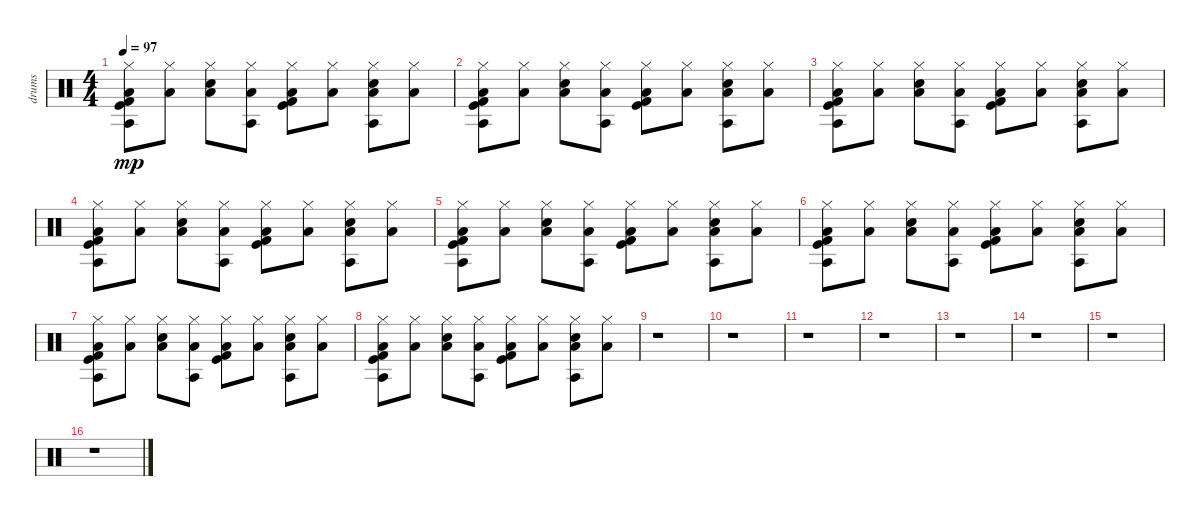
\track ("drums" "drums") {instrument percussion}
\staff {score}
\articulation defaults
\ts (4 4)
\tempo 97
\clef neutral
\ks c
("Hi-Hat (closed)" "Agogo tow (hit)" "Kick (hit)" "Kick (hit) 2" "Low Floor Tom (hit)").8{dy mp} ("Hi-Hat (closed)" "Low Floor Tom (hit)").8 ("Electric Snare (hit)" "Hi-Hat (closed)" "Low Floor Tom (hit)").8 ("Hi-Hat (closed)" "Agogo tow (hit)" "Low Floor Tom (hit)").8 ("Kick (hit)" "Hi-Hat (closed)" "Kick (hit) 2" "Low Floor Tom (hit)").8 ("Hi-Hat (closed)" "Low Floor Tom (hit)").8 ("Agogo tow (hit)" "Hi-Hat (closed)" "Electric Snare (hit)" "Low Floor Tom (hit)").8 ("Hi-Hat (closed)" "Low Floor Tom (hit)").8 |
("Kick (hit)" "Kick (hit) 2" "Agogo tow (hit)" "Hi-Hat (closed)" "Low Floor Tom (hit)").8 ("Hi-Hat (closed)" "Low Floor Tom (hit)").8 ("Hi-Hat (closed)" "Electric Snare (hit)" "Low Floor Tom (hit)").8 ("Agogo tow (hit)" "Hi-Hat (closed)" "Low Floor Tom (hit)").8 ("Kick (hit) 2" "Kick (hit)" "Hi-Hat (closed)" "Low Floor Tom (hit)").8 ("Hi-Hat (closed)" "Low Floor Tom (hit)").8 ("Agogo tow (hit)" "Hi-Hat (closed)" "Electric Snare (hit)" "Low Floor Tom (hit)").8 ("Hi-Hat (closed)" "Low Floor Tom (hit)").8 |
("Kick (hit)" "Kick (hit) 2" "Hi-Hat (closed)" "Agogo tow (hit)" "Low Floor Tom (hit)").8 ("Hi-Hat (closed)" "Low Floor Tom (hit)").8 ("Hi-Hat (closed)" "Electric Snare (hit)" "Low Floor Tom (hit)").8 ("Hi-Hat (closed)" "Agogo tow (hit)" "Low Floor Tom (hit)").8 ("Kick (hit)" "Kick (hit) 2" "Hi-Hat (closed)" "Low Floor Tom (hit)").8 ("Hi-Hat (closed)" "Low Floor Tom (hit)").8 ("Hi-Hat (closed)" "Agogo tow (hit)" "Electric Snare (hit)" "Low Floor Tom (hit)").8 ("Hi-Hat (closed)" "Low Floor Tom (hit)").8 |
("Kick (hit) 2" "Kick (hit)" "Agogo tow (hit)" "Hi-Hat (closed)" "Low Floor Tom (hit)").8 ("Hi-Hat (closed)" "Low Floor Tom (hit)").8 ("Hi-Hat (closed)" "Electric Snare (hit)" "Low Floor Tom (hit)").8 ("Agogo tow (hit)" "Hi-Hat (closed)" "Low Floor Tom (hit)").8 ("Kick (hit)" "Kick (hit) 2" "Hi-Hat (closed)" "Low Floor Tom (hit)").8 ("Hi-Hat (closed)" "Low Floor Tom (hit)").8 ("Agogo tow (hit)" "Hi-Hat (closed)" "Electric Snare (hit)" "Low Floor Tom (hit)").8 ("Hi-Hat (closed)" "Low Floor Tom (hit)").8 |
("Kick (hit)" "Kick (hit) 2" "Agogo tow (hit)" "Hi-Hat (closed)" "Low Floor Tom (hit)").8 ("Hi-Hat (closed)" "Low Floor Tom (hit)").8 ("Hi-Hat (closed)" "Electric Snare (hit)" "Low Floor Tom (hit)").8 ("Agogo tow (hit)" "Hi-Hat (closed)" "Low Floor Tom (hit)").8 ("Kick (hit) 2" "Kick (hit)" "Hi-Hat (closed)" "Low Floor Tom (hit)").8 ("Hi-Hat (closed)" "Low Floor Tom (hit)").8 ("Agogo tow (hit)" "Hi-Hat (closed)" "Electric Snare (hit)" "Low Floor Tom (hit)").8 ("Hi-Hat (closed)" "Low Floor Tom (hit)").8 |
("Kick (hit)" "Kick (hit) 2" "Agogo tow (hit)" "Hi-Hat (closed)" "Low Floor Tom (hit)").8 ("Hi-Hat (closed)" "Low Floor Tom (hit)").8 ("Hi-Hat (closed)" "Electric Snare (hit)" "Low Floor Tom (hit)").8 ("Agogo tow (hit)" "Hi-Hat (closed)" "Low Floor Tom (hit)").8 ("Kick (hit)" "Kick (hit) 2" "Hi-Hat (closed)" "Low Floor Tom (hit)").8 ("Hi-Hat (closed)" "Low Floor Tom (hit)").8 ("Agogo tow (hit)" "Hi-Hat (closed)" "Electric Snare (hit)" "Low Floor Tom (hit)").8 ("Hi-Hat (closed)" "Low Floor Tom (hit)").8 |
("Kick (hit) 2" "Kick (hit)" "Hi-Hat (closed)" "Agogo tow (hit)" "Low Floor Tom (hit)").8 ("Hi-Hat (closed)" "Low Floor Tom (hit)").8 ("Hi-Hat (closed)" "Electric Snare (hit)" "Low Floor Tom (hit)").8 ("Hi-Hat (closed)" "Agogo tow (hit)" "Low Floor Tom (hit)").8 ("Kick (hit)" "Kick (hit) 2" "Hi-Hat (closed)" "Low Floor Tom (hit)").8 ("Hi-Hat (closed)" "Low Floor Tom (hit)").8 ("Hi-Hat (closed)" "Agogo tow (hit)" "Electric Snare (hit)" "Low Floor Tom (hit)").8 ("Hi-Hat (closed)" "Low Floor Tom (hit)").8 |
("Kick (hit)" "Kick (hit) 2" "Agogo tow (hit)" "Hi-Hat (closed)" "Low Floor Tom (hit)").8 ("Hi-Hat (closed)" "Low Floor Tom (hit)").8 ("Hi-Hat (closed)" "Electric Snare (hit)" "Low Floor Tom (hit)").8 ("Agogo tow (hit)" "Hi-Hat (closed)" "Low Floor Tom (hit)").8 ("Kick (hit)" "Kick (hit) 2" "Hi-Hat (closed)" "Low Floor Tom (hit)").8 ("Hi-Hat (closed)" "Low Floor Tom (hit)").8 ("Agogo tow (hit)" "Hi-Hat (closed)" "Electric Snare (hit)" "Low Floor Tom (hit)").8 ("Hi-Hat (closed)" "Low Floor Tom (hit)").8 |
r.1 |
r.1 |
r.1 |
r.1 |
r.1 |
r.1 |
r.1 |
r.1
